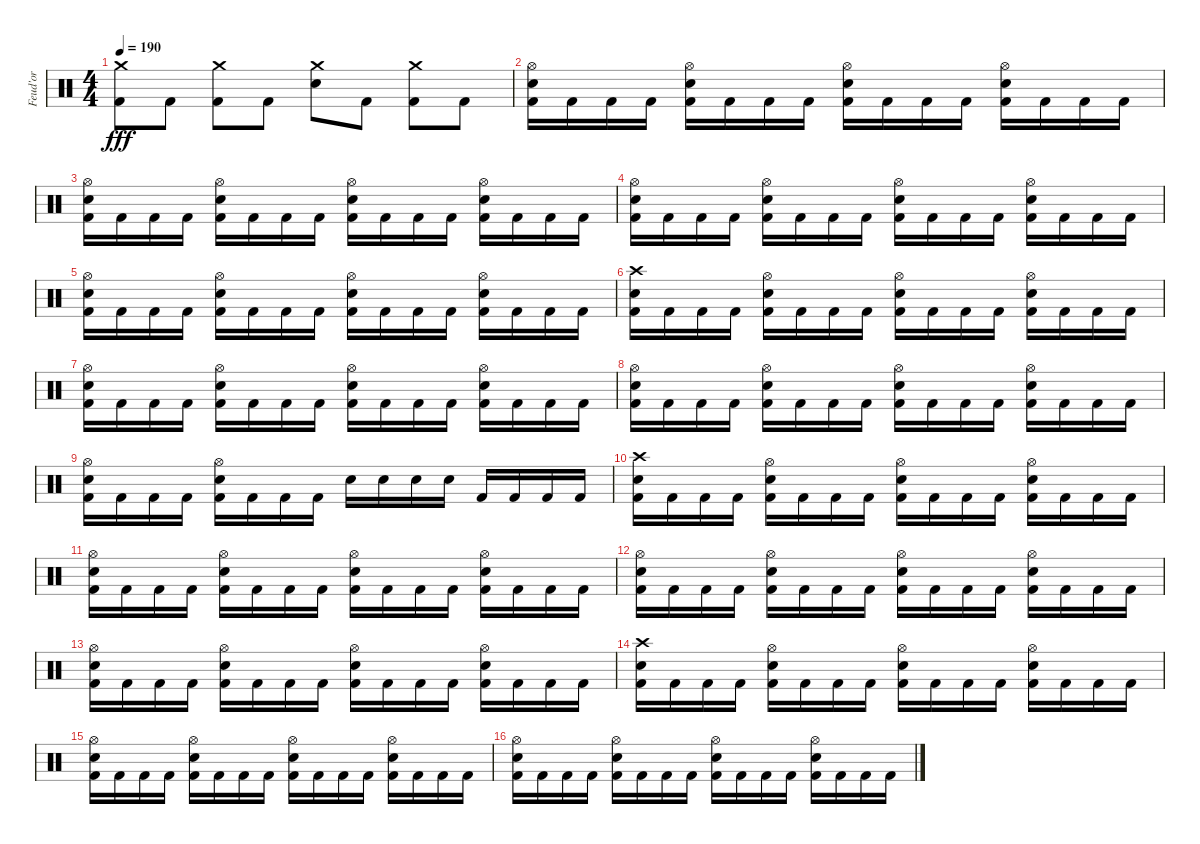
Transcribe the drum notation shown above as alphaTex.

\track ("Feud'or" "Feud'or") {instrument percussion}
\staff {score}
\articulation defaults
\ts (4 4)
\tempo 190
\clef neutral
\ks c
("Crash medium (hit)" "Kick (hit) 2").8{dy fff} "Kick (hit) 2".8 ("Crash medium (hit)" "Kick (hit) 2").8 "Kick (hit) 2".8 ("Crash medium (hit)" "Snare (hit) 2").8 "Kick (hit) 2".8 ("Crash medium (hit)" "Kick (hit) 2").8 "Kick (hit) 2".8 |
("Hi-Hat (open)" "Snare (hit) 2" "Kick (hit) 2").16 "Kick (hit) 2".16 "Kick (hit) 2".16 "Kick (hit) 2".16 ("Hi-Hat (open)" "Snare (hit) 2" "Kick (hit) 2").16 "Kick (hit) 2".16 "Kick (hit) 2".16 "Kick (hit) 2".16 ("Hi-Hat (open)" "Snare (hit) 2" "Kick (hit) 2").16 "Kick (hit) 2".16 "Kick (hit) 2".16 "Kick (hit) 2".16 ("Hi-Hat (open)" "Snare (hit) 2" "Kick (hit) 2").16 "Kick (hit) 2".16 "Kick (hit) 2".16 "Kick (hit) 2".16 |
("Hi-Hat (open)" "Snare (hit) 2" "Kick (hit) 2").16 "Kick (hit) 2".16 "Kick (hit) 2".16 "Kick (hit) 2".16 ("Hi-Hat (open)" "Snare (hit) 2" "Kick (hit) 2").16 "Kick (hit) 2".16 "Kick (hit) 2".16 "Kick (hit) 2".16 ("Hi-Hat (open)" "Snare (hit) 2" "Kick (hit) 2").16 "Kick (hit) 2".16 "Kick (hit) 2".16 "Kick (hit) 2".16 ("Hi-Hat (open)" "Snare (hit) 2" "Kick (hit) 2").16 "Kick (hit) 2".16 "Kick (hit) 2".16 "Kick (hit) 2".16 |
("Hi-Hat (open)" "Snare (hit) 2" "Kick (hit) 2").16 "Kick (hit) 2".16 "Kick (hit) 2".16 "Kick (hit) 2".16 ("Hi-Hat (open)" "Snare (hit) 2" "Kick (hit) 2").16 "Kick (hit) 2".16 "Kick (hit) 2".16 "Kick (hit) 2".16 ("Hi-Hat (open)" "Snare (hit) 2" "Kick (hit) 2").16 "Kick (hit) 2".16 "Kick (hit) 2".16 "Kick (hit) 2".16 ("Hi-Hat (open)" "Snare (hit) 2" "Kick (hit) 2").16 "Kick (hit) 2".16 "Kick (hit) 2".16 "Kick (hit) 2".16 |
("Hi-Hat (open)" "Snare (hit) 2" "Kick (hit) 2").16 "Kick (hit) 2".16 "Kick (hit) 2".16 "Kick (hit) 2".16 ("Hi-Hat (open)" "Snare (hit) 2" "Kick (hit) 2").16 "Kick (hit) 2".16 "Kick (hit) 2".16 "Kick (hit) 2".16 ("Hi-Hat (open)" "Snare (hit) 2" "Kick (hit) 2").16 "Kick (hit) 2".16 "Kick (hit) 2".16 "Kick (hit) 2".16 ("Hi-Hat (open)" "Snare (hit) 2" "Kick (hit) 2").16 "Kick (hit) 2".16 "Kick (hit) 2".16 "Kick (hit) 2".16 |
("Crash high (hit)" "Snare (hit) 2" "Kick (hit) 2").16 "Kick (hit) 2".16 "Kick (hit) 2".16 "Kick (hit) 2".16 ("Hi-Hat (open)" "Snare (hit) 2" "Kick (hit) 2").16 "Kick (hit) 2".16 "Kick (hit) 2".16 "Kick (hit) 2".16 ("Hi-Hat (open)" "Snare (hit) 2" "Kick (hit) 2").16 "Kick (hit) 2".16 "Kick (hit) 2".16 "Kick (hit) 2".16 ("Hi-Hat (open)" "Snare (hit) 2" "Kick (hit) 2").16 "Kick (hit) 2".16 "Kick (hit) 2".16 "Kick (hit) 2".16 |
("Hi-Hat (open)" "Snare (hit) 2" "Kick (hit) 2").16 "Kick (hit) 2".16 "Kick (hit) 2".16 "Kick (hit) 2".16 ("Hi-Hat (open)" "Snare (hit) 2" "Kick (hit) 2").16 "Kick (hit) 2".16 "Kick (hit) 2".16 "Kick (hit) 2".16 ("Hi-Hat (open)" "Snare (hit) 2" "Kick (hit) 2").16 "Kick (hit) 2".16 "Kick (hit) 2".16 "Kick (hit) 2".16 ("Hi-Hat (open)" "Snare (hit) 2" "Kick (hit) 2").16 "Kick (hit) 2".16 "Kick (hit) 2".16 "Kick (hit) 2".16 |
("Hi-Hat (open)" "Snare (hit) 2" "Kick (hit) 2").16 "Kick (hit) 2".16 "Kick (hit) 2".16 "Kick (hit) 2".16 ("Hi-Hat (open)" "Snare (hit) 2" "Kick (hit) 2").16 "Kick (hit) 2".16 "Kick (hit) 2".16 "Kick (hit) 2".16 ("Hi-Hat (open)" "Snare (hit) 2" "Kick (hit) 2").16 "Kick (hit) 2".16 "Kick (hit) 2".16 "Kick (hit) 2".16 ("Hi-Hat (open)" "Snare (hit) 2" "Kick (hit) 2").16 "Kick (hit) 2".16 "Kick (hit) 2".16 "Kick (hit) 2".16 |
("Hi-Hat (open)" "Snare (hit) 2" "Kick (hit) 2").16 "Kick (hit) 2".16 "Kick (hit) 2".16 "Kick (hit) 2".16 ("Hi-Hat (open)" "Snare (hit) 2" "Kick (hit) 2").16 "Kick (hit) 2".16 "Kick (hit) 2".16 "Kick (hit) 2".16 "Snare (hit) 2".16 "Snare (hit) 2".16 "Snare (hit) 2".16 "Snare (hit) 2".16 "Kick (hit) 2".16 "Kick (hit) 2".16 "Kick (hit) 2".16 "Kick (hit) 2".16 |
("Crash high (hit)" "Snare (hit) 2" "Kick (hit) 2").16 "Kick (hit) 2".16 "Kick (hit) 2".16 "Kick (hit) 2".16 ("Hi-Hat (open)" "Snare (hit) 2" "Kick (hit) 2").16 "Kick (hit) 2".16 "Kick (hit) 2".16 "Kick (hit) 2".16 ("Hi-Hat (open)" "Snare (hit) 2" "Kick (hit) 2").16 "Kick (hit) 2".16 "Kick (hit) 2".16 "Kick (hit) 2".16 ("Hi-Hat (open)" "Snare (hit) 2" "Kick (hit) 2").16 "Kick (hit) 2".16 "Kick (hit) 2".16 "Kick (hit) 2".16 |
("Hi-Hat (open)" "Snare (hit) 2" "Kick (hit) 2").16 "Kick (hit) 2".16 "Kick (hit) 2".16 "Kick (hit) 2".16 ("Hi-Hat (open)" "Snare (hit) 2" "Kick (hit) 2").16 "Kick (hit) 2".16 "Kick (hit) 2".16 "Kick (hit) 2".16 ("Hi-Hat (open)" "Snare (hit) 2" "Kick (hit) 2").16 "Kick (hit) 2".16 "Kick (hit) 2".16 "Kick (hit) 2".16 ("Hi-Hat (open)" "Snare (hit) 2" "Kick (hit) 2").16 "Kick (hit) 2".16 "Kick (hit) 2".16 "Kick (hit) 2".16 |
("Hi-Hat (open)" "Snare (hit) 2" "Kick (hit) 2").16 "Kick (hit) 2".16 "Kick (hit) 2".16 "Kick (hit) 2".16 ("Hi-Hat (open)" "Snare (hit) 2" "Kick (hit) 2").16 "Kick (hit) 2".16 "Kick (hit) 2".16 "Kick (hit) 2".16 ("Hi-Hat (open)" "Snare (hit) 2" "Kick (hit) 2").16 "Kick (hit) 2".16 "Kick (hit) 2".16 "Kick (hit) 2".16 ("Hi-Hat (open)" "Snare (hit) 2" "Kick (hit) 2").16 "Kick (hit) 2".16 "Kick (hit) 2".16 "Kick (hit) 2".16 |
("Hi-Hat (open)" "Snare (hit) 2" "Kick (hit) 2").16 "Kick (hit) 2".16 "Kick (hit) 2".16 "Kick (hit) 2".16 ("Hi-Hat (open)" "Snare (hit) 2" "Kick (hit) 2").16 "Kick (hit) 2".16 "Kick (hit) 2".16 "Kick (hit) 2".16 ("Hi-Hat (open)" "Snare (hit) 2" "Kick (hit) 2").16 "Kick (hit) 2".16 "Kick (hit) 2".16 "Kick (hit) 2".16 ("Hi-Hat (open)" "Snare (hit) 2" "Kick (hit) 2").16 "Kick (hit) 2".16 "Kick (hit) 2".16 "Kick (hit) 2".16 |
("Crash high (hit)" "Snare (hit) 2" "Kick (hit) 2").16 "Kick (hit) 2".16 "Kick (hit) 2".16 "Kick (hit) 2".16 ("Hi-Hat (open)" "Snare (hit) 2" "Kick (hit) 2").16 "Kick (hit) 2".16 "Kick (hit) 2".16 "Kick (hit) 2".16 ("Hi-Hat (open)" "Snare (hit) 2" "Kick (hit) 2").16 "Kick (hit) 2".16 "Kick (hit) 2".16 "Kick (hit) 2".16 ("Hi-Hat (open)" "Snare (hit) 2" "Kick (hit) 2").16 "Kick (hit) 2".16 "Kick (hit) 2".16 "Kick (hit) 2".16 |
("Hi-Hat (open)" "Snare (hit) 2" "Kick (hit) 2").16 "Kick (hit) 2".16 "Kick (hit) 2".16 "Kick (hit) 2".16 ("Hi-Hat (open)" "Snare (hit) 2" "Kick (hit) 2").16 "Kick (hit) 2".16 "Kick (hit) 2".16 "Kick (hit) 2".16 ("Hi-Hat (open)" "Snare (hit) 2" "Kick (hit) 2").16 "Kick (hit) 2".16 "Kick (hit) 2".16 "Kick (hit) 2".16 ("Hi-Hat (open)" "Snare (hit) 2" "Kick (hit) 2").16 "Kick (hit) 2".16 "Kick (hit) 2".16 "Kick (hit) 2".16 |
("Hi-Hat (open)" "Snare (hit) 2" "Kick (hit) 2").16 "Kick (hit) 2".16 "Kick (hit) 2".16 "Kick (hit) 2".16 ("Hi-Hat (open)" "Snare (hit) 2" "Kick (hit) 2").16 "Kick (hit) 2".16 "Kick (hit) 2".16 "Kick (hit) 2".16 ("Hi-Hat (open)" "Snare (hit) 2" "Kick (hit) 2").16 "Kick (hit) 2".16 "Kick (hit) 2".16 "Kick (hit) 2".16 ("Hi-Hat (open)" "Snare (hit) 2" "Kick (hit) 2").16 "Kick (hit) 2".16 "Kick (hit) 2".16 "Kick (hit) 2".16
